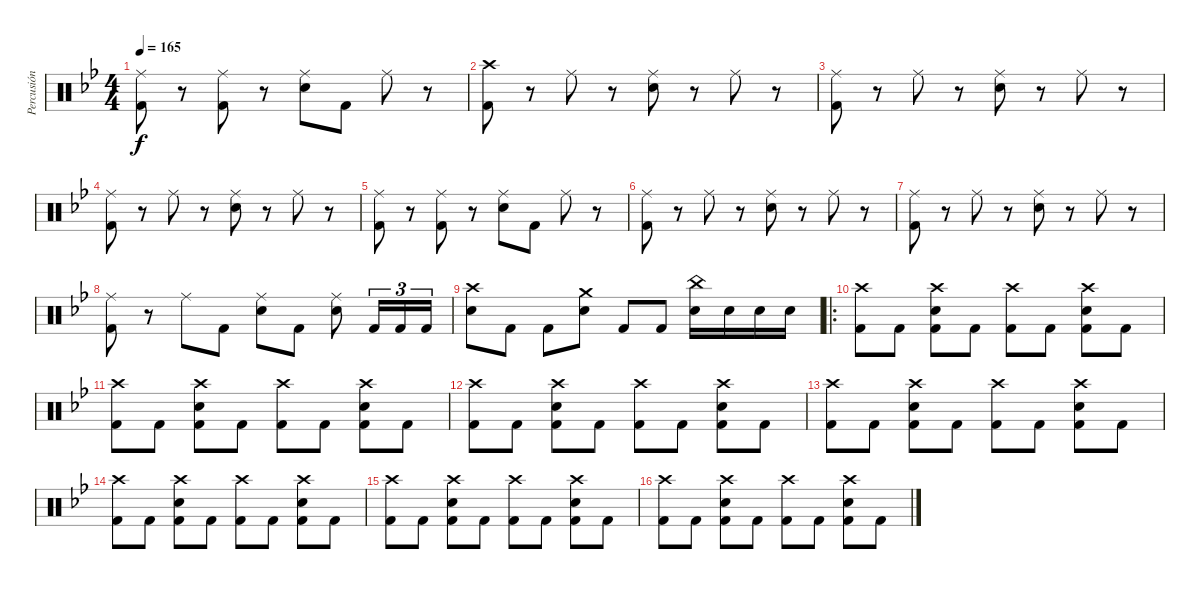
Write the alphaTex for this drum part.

\track ("Percusión" "Percusión") {instrument percussion}
\staff {score}
\articulation defaults
\ts (4 4)
\tempo 165
\clef neutral
\ks bb
("Ride (middle)" "Kick (hit) 2").8{dy f} r.8 ("Ride (middle)" "Kick (hit) 2").8 r.8 ("Ride (middle)" "Electric Snare (hit)").8 "Kick (hit) 2".8 "Ride (middle)".8 r.8 |
("Crash high (hit)" "Kick (hit) 2").8 r.8 "Ride (middle)".8 r.8 ("Ride (middle)" "Electric Snare (hit)").8 r.8 "Ride (middle)".8 r.8 |
("Ride (middle)" "Kick (hit) 2").8 r.8 "Ride (middle)".8 r.8 ("Ride (middle)" "Electric Snare (hit)").8 r.8 "Ride (middle)".8 r.8 |
("Ride (middle)" "Kick (hit) 2").8 r.8 "Ride (middle)".8 r.8 ("Ride (middle)" "Electric Snare (hit)").8 r.8 "Ride (middle)".8 r.8 |
("Ride (middle)" "Kick (hit) 2").8 r.8 ("Ride (middle)" "Kick (hit) 2").8 r.8 ("Ride (middle)" "Electric Snare (hit)").8 "Kick (hit) 2".8 "Ride (middle)".8 r.8 |
("Ride (middle)" "Kick (hit) 2").8 r.8 "Ride (middle)".8 r.8 ("Ride (middle)" "Electric Snare (hit)").8 r.8 "Ride (middle)".8 r.8 |
("Ride (middle)" "Kick (hit) 2").8 r.8 "Ride (middle)".8 r.8 ("Ride (middle)" "Electric Snare (hit)").8 r.8 "Ride (middle)".8 r.8 |
("Ride (middle)" "Kick (hit) 2").8 r.8 "Ride (middle)".8 "Kick (hit) 2".8 ("Ride (middle)" "Electric Snare (hit)").8 "Kick (hit) 2".8 ("Ride (middle)" "Electric Snare (hit)").8 "Kick (hit) 2".16{tu (3 2)} "Kick (hit) 2".16{tu (3 2)} "Kick (hit) 2".16{tu (3 2)} |
("Crash high (hit)" "Electric Snare (hit)").8 "Kick (hit) 2".8 "Kick (hit) 2".8 ("Crash medium (hit)" "Electric Snare (hit)").8 "Kick (hit) 2".8 "Kick (hit) 2".8 ("China (hit)" "Electric Snare (hit)").16 "Electric Snare (hit)".16 "Electric Snare (hit)".16 "Electric Snare (hit)".16 |
\ro
("Crash high (hit)" "Kick (hit) 2").8 "Kick (hit) 2".8 ("Crash high (hit)" "Electric Snare (hit)" "Kick (hit) 2").8 "Kick (hit) 2".8 ("Crash high (hit)" "Kick (hit) 2").8 "Kick (hit) 2".8 ("Crash high (hit)" "Electric Snare (hit)" "Kick (hit) 2").8 "Kick (hit) 2".8 |
("Crash high (hit)" "Kick (hit) 2").8 "Kick (hit) 2".8 ("Crash high (hit)" "Electric Snare (hit)" "Kick (hit) 2").8 "Kick (hit) 2".8 ("Crash high (hit)" "Kick (hit) 2").8 "Kick (hit) 2".8 ("Crash high (hit)" "Electric Snare (hit)" "Kick (hit) 2").8 "Kick (hit) 2".8 |
("Crash high (hit)" "Kick (hit) 2").8 "Kick (hit) 2".8 ("Crash high (hit)" "Electric Snare (hit)" "Kick (hit) 2").8 "Kick (hit) 2".8 ("Crash high (hit)" "Kick (hit) 2").8 "Kick (hit) 2".8 ("Crash high (hit)" "Electric Snare (hit)" "Kick (hit) 2").8 "Kick (hit) 2".8 |
("Crash high (hit)" "Kick (hit) 2").8 "Kick (hit) 2".8 ("Crash high (hit)" "Electric Snare (hit)" "Kick (hit) 2").8 "Kick (hit) 2".8 ("Crash high (hit)" "Kick (hit) 2").8 "Kick (hit) 2".8 ("Crash high (hit)" "Electric Snare (hit)" "Kick (hit) 2").8 "Kick (hit) 2".8 |
("Crash high (hit)" "Kick (hit) 2").8 "Kick (hit) 2".8 ("Crash high (hit)" "Electric Snare (hit)" "Kick (hit) 2").8 "Kick (hit) 2".8 ("Crash high (hit)" "Kick (hit) 2").8 "Kick (hit) 2".8 ("Crash high (hit)" "Electric Snare (hit)" "Kick (hit) 2").8 "Kick (hit) 2".8 |
("Crash high (hit)" "Kick (hit) 2").8 "Kick (hit) 2".8 ("Crash high (hit)" "Electric Snare (hit)" "Kick (hit) 2").8 "Kick (hit) 2".8 ("Crash high (hit)" "Kick (hit) 2").8 "Kick (hit) 2".8 ("Crash high (hit)" "Electric Snare (hit)" "Kick (hit) 2").8 "Kick (hit) 2".8 |
("Crash high (hit)" "Kick (hit) 2").8 "Kick (hit) 2".8 ("Crash high (hit)" "Electric Snare (hit)" "Kick (hit) 2").8 "Kick (hit) 2".8 ("Crash high (hit)" "Kick (hit) 2").8 "Kick (hit) 2".8 ("Crash high (hit)" "Electric Snare (hit)" "Kick (hit) 2").8 "Kick (hit) 2".8
